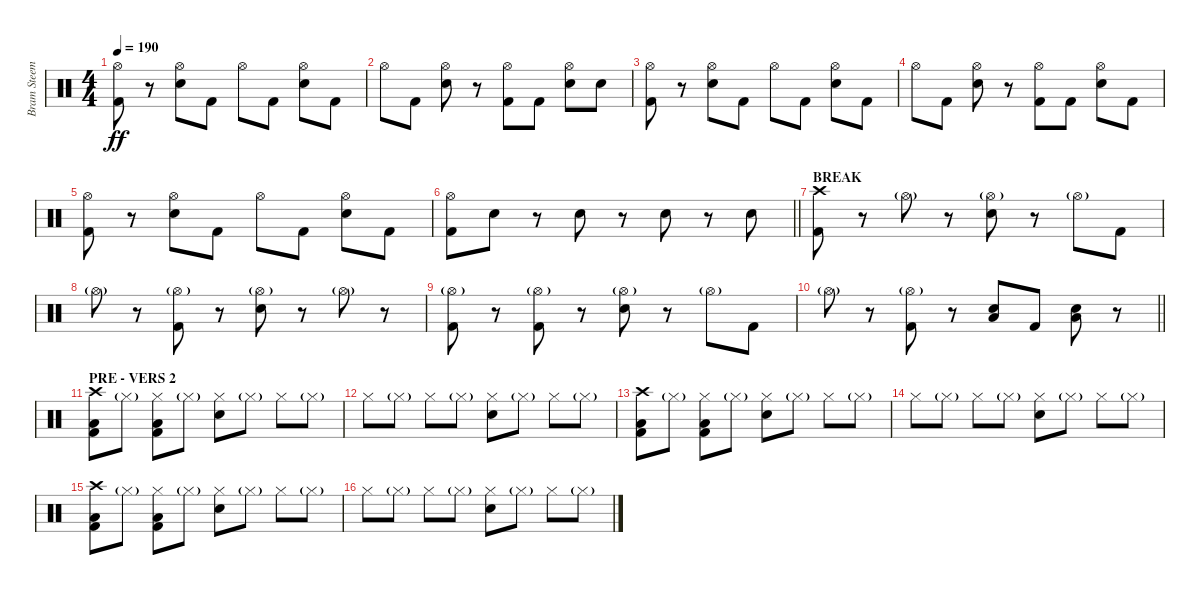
\track ("Bram Steemans" "Bram Steem") {instrument percussion}
\staff {score}
\articulation defaults
\ts (4 4)
\tempo 190
\clef neutral
\ks c
("Hi-Hat (open)" "Kick (hit) 2").8{dy ff} r.8 ("Hi-Hat (open)" "Snare (hit) 2").8 "Kick (hit) 2".8 "Hi-Hat (open)".8 "Kick (hit) 2".8 ("Hi-Hat (open)" "Snare (hit) 2").8 "Kick (hit) 2".8 |
"Hi-Hat (open)".8 "Kick (hit) 2".8 ("Hi-Hat (open)" "Snare (hit) 2").8 r.8 ("Hi-Hat (open)" "Kick (hit) 2").8 "Kick (hit) 2".8 ("Hi-Hat (open)" "Snare (hit) 2").8 "Snare (hit) 2".8 |
("Hi-Hat (open)" "Kick (hit) 2").8 r.8 ("Hi-Hat (open)" "Snare (hit) 2").8 "Kick (hit) 2".8 "Hi-Hat (open)".8 "Kick (hit) 2".8 ("Hi-Hat (open)" "Snare (hit) 2").8 "Kick (hit) 2".8 |
"Hi-Hat (open)".8 "Kick (hit) 2".8 ("Hi-Hat (open)" "Snare (hit) 2").8 r.8 ("Hi-Hat (open)" "Kick (hit) 2").8 "Kick (hit) 2".8 ("Hi-Hat (open)" "Snare (hit) 2").8 "Kick (hit) 2".8 |
("Hi-Hat (open)" "Kick (hit) 2").8 r.8 ("Hi-Hat (open)" "Snare (hit) 2").8 "Kick (hit) 2".8 "Hi-Hat (open)".8 "Kick (hit) 2".8 ("Hi-Hat (open)" "Snare (hit) 2").8 "Kick (hit) 2".8 |
\barLineRight lightlight
("Hi-Hat (open)" "Kick (hit) 2").8 "Snare (hit) 2".8 r.8 "Snare (hit) 2".8 r.8 "Snare (hit) 2".8 r.8 "Snare (hit) 2".8 |
\section ("" "BREAK")
("Crash high (hit)" "Kick (hit) 2").8 r.8 "Hi-Hat (open)"{g}.8 r.8 ("Hi-Hat (open)"{g} "Snare (hit) 2").8 r.8 "Hi-Hat (open)"{g}.8 "Kick (hit) 2".8 |
"Hi-Hat (open)"{g}.8 r.8 ("Hi-Hat (open)"{g} "Kick (hit) 2").8 r.8 ("Hi-Hat (open)"{g} "Snare (hit) 2").8 r.8 "Hi-Hat (open)"{g}.8 r.8 |
("Hi-Hat (open)"{g} "Kick (hit) 2").8 r.8 ("Hi-Hat (open)"{g} "Kick (hit) 2").8 r.8 ("Hi-Hat (open)"{g} "Snare (hit) 2").8 r.8 "Hi-Hat (open)"{g}.8 "Kick (hit) 2".8 |
\barLineRight lightlight "Hi-Hat (open)"{g}.8
r.8 ("Hi-Hat (open)"{g} "Kick (hit) 2").8 r.8 ("Low Floor Tom (hit)" "Snare (hit) 2").8 "Kick (hit) 2".8 ("Low Floor Tom (hit)" "Snare (hit) 2").8 r.8 |
\section ("" "PRE - VERS 2")
("Crash high (hit)" "Low Floor Tom (hit)" "Kick (hit) 2").8 "Hi-Hat (closed)"{g}.8 ("Hi-Hat (closed)" "Low Floor Tom (hit)" "Kick (hit) 2").8 "Hi-Hat (closed)"{g}.8 ("Hi-Hat (closed)" "Snare (hit) 2").8 "Hi-Hat (closed)"{g}.8 "Hi-Hat (closed)".8 "Hi-Hat (closed)"{g}.8 |
"Hi-Hat (closed)".8 "Hi-Hat (closed)"{g}.8 "Hi-Hat (closed)".8 "Hi-Hat (closed)"{g}.8 ("Hi-Hat (closed)" "Snare (hit) 2").8 "Hi-Hat (closed)"{g}.8 "Hi-Hat (closed)".8 "Hi-Hat (closed)"{g}.8 |
("Crash high (hit)" "Low Floor Tom (hit)" "Kick (hit) 2").8 "Hi-Hat (closed)"{g}.8 ("Hi-Hat (closed)" "Low Floor Tom (hit)" "Kick (hit) 2").8 "Hi-Hat (closed)"{g}.8 ("Hi-Hat (closed)" "Snare (hit) 2").8 "Hi-Hat (closed)"{g}.8 "Hi-Hat (closed)".8 "Hi-Hat (closed)"{g}.8 |
"Hi-Hat (closed)".8 "Hi-Hat (closed)"{g}.8 "Hi-Hat (closed)".8 "Hi-Hat (closed)"{g}.8 ("Hi-Hat (closed)" "Snare (hit) 2").8 "Hi-Hat (closed)"{g}.8 "Hi-Hat (closed)".8 "Hi-Hat (closed)"{g}.8 |
("Crash high (hit)" "Low Floor Tom (hit)" "Kick (hit) 2").8 "Hi-Hat (closed)"{g}.8 ("Hi-Hat (closed)" "Low Floor Tom (hit)" "Kick (hit) 2").8 "Hi-Hat (closed)"{g}.8 ("Hi-Hat (closed)" "Snare (hit) 2").8 "Hi-Hat (closed)"{g}.8 "Hi-Hat (closed)".8 "Hi-Hat (closed)"{g}.8 |
"Hi-Hat (closed)".8 "Hi-Hat (closed)"{g}.8 "Hi-Hat (closed)".8 "Hi-Hat (closed)"{g}.8 ("Hi-Hat (closed)" "Snare (hit) 2").8 "Hi-Hat (closed)"{g}.8 "Hi-Hat (closed)".8 "Hi-Hat (closed)"{g}.8
